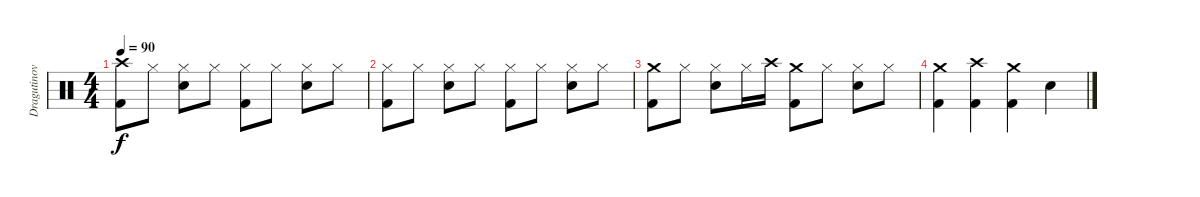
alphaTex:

\track ("Dragutinovic" "Dragutinov") {instrument percussion}
\staff {score}
\articulation defaults
\ts (4 4)
\tempo 90
\clef neutral
\ks c
("Crash high (hit)" "Kick (hit) 2").8{dy f} "Hi-Hat (closed)".8 ("Hi-Hat (closed)" "Electric Snare (hit)").8 "Hi-Hat (closed)".8 ("Hi-Hat (closed)" "Kick (hit) 2").8 "Hi-Hat (closed)".8 ("Hi-Hat (closed)" "Electric Snare (hit)").8 "Hi-Hat (closed)".8 |
("Hi-Hat (closed)" "Kick (hit) 2").8 "Hi-Hat (closed)".8 ("Hi-Hat (closed)" "Electric Snare (hit)").8 "Hi-Hat (closed)".8 ("Hi-Hat (closed)" "Kick (hit) 2").8 "Hi-Hat (closed)".8 ("Hi-Hat (closed)" "Electric Snare (hit)").8 "Hi-Hat (closed)".8 |
("Crash medium (hit)" "Kick (hit) 2").8 "Hi-Hat (closed)".8 ("Hi-Hat (closed)" "Electric Snare (hit)").8 "Hi-Hat (closed)".16 "Crash high (hit)".16 ("Crash medium (hit)" "Kick (hit) 2").8 "Hi-Hat (closed)".8 ("Hi-Hat (closed)" "Electric Snare (hit)").8 "Hi-Hat (closed)".8 |
("Crash medium (hit)" "Kick (hit) 2").4 ("Crash high (hit)" "Kick (hit) 2").4 ("Crash medium (hit)" "Kick (hit) 2").4 "Electric Snare (hit)".4
